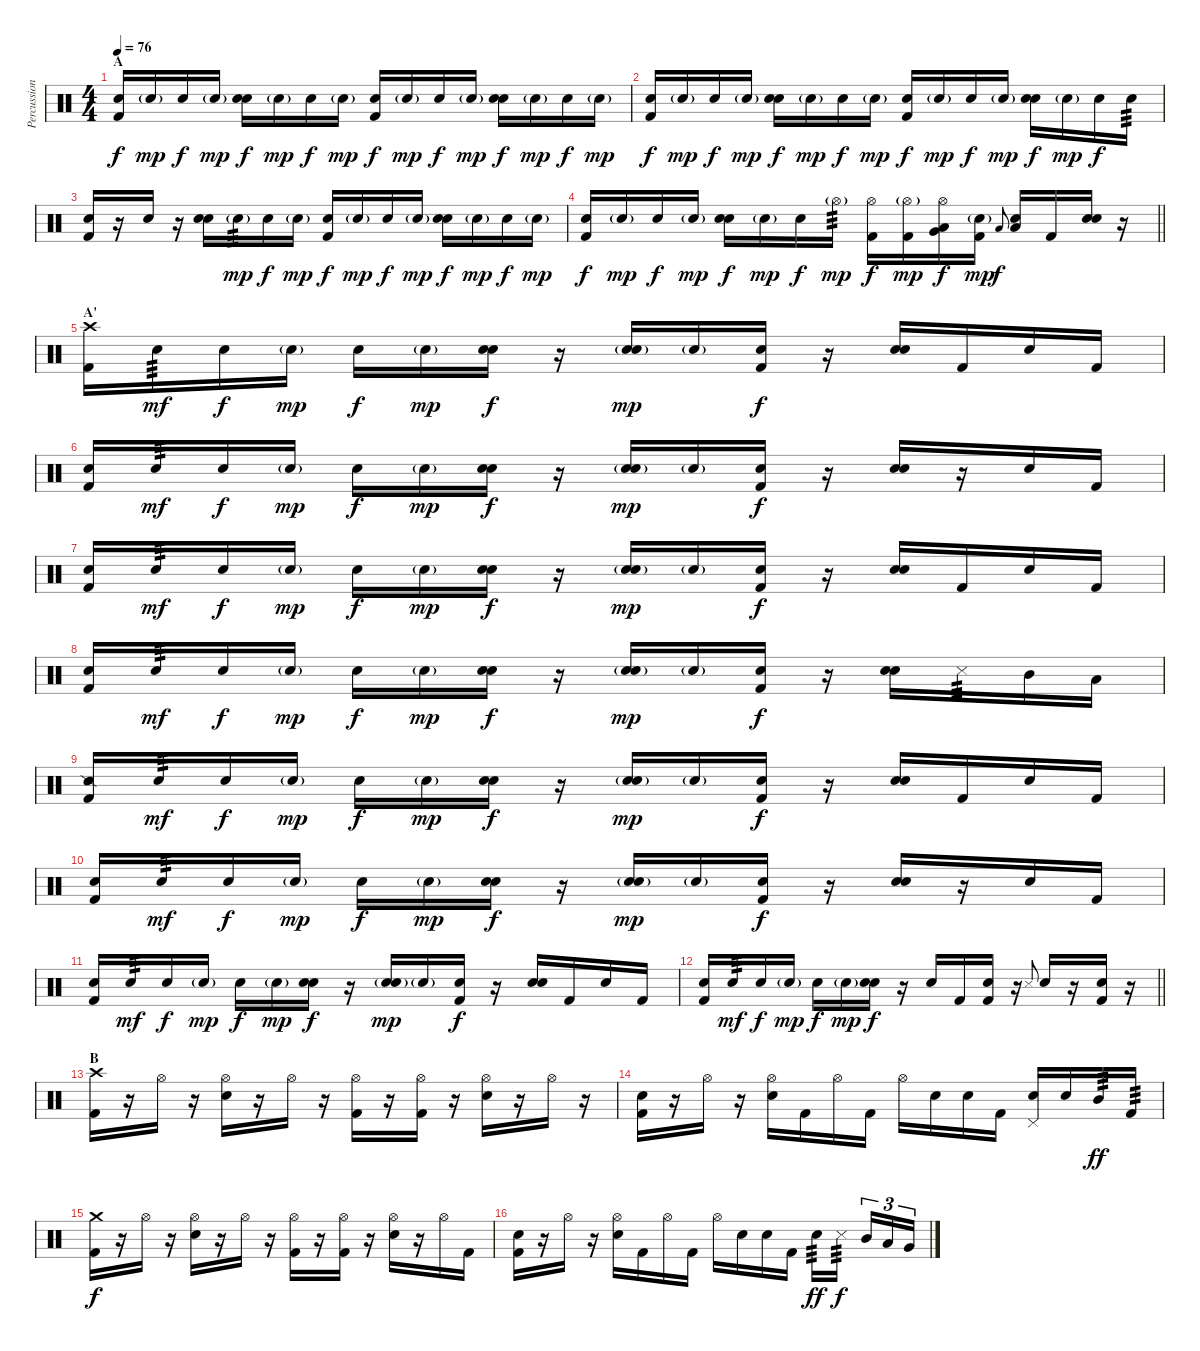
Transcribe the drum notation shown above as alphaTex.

\track ("Percussion" "Percussion") {instrument percussion}
\staff {score}
\articulation defaults
\ts (4 4)
\section ("" "A")
\tempo 76
\clef neutral
\ks c
("Snare (hit)" "Kick (hit) 2").16{dy f} "Snare (hit)"{g}.16{dy mp} "Snare (hit)".16{dy f} "Snare (hit)"{g}.16{dy mp} ("Snare (hit)" "Snare (hit) 2").16{dy f} "Snare (hit)"{g}.16{dy mp} "Snare (hit)".16{dy f} "Snare (hit)"{g}.16{dy mp} ("Snare (hit)" "Kick (hit) 2").16{dy f} "Snare (hit)"{g}.16{dy mp} "Snare (hit)".16{dy f} "Snare (hit)"{g}.16{dy mp} ("Snare (hit)" "Snare (hit) 2").16{dy f} "Snare (hit)"{g}.16{dy mp} "Snare (hit)".16{dy f} "Snare (hit)"{g}.16{dy mp} |
("Snare (hit)" "Kick (hit) 2").16{dy f} "Snare (hit)"{g}.16{dy mp} "Snare (hit)".16{dy f} "Snare (hit)"{g}.16{dy mp} ("Snare (hit)" "Snare (hit) 2").16{dy f} "Snare (hit)"{g}.16{dy mp} "Snare (hit)".16{dy f} "Snare (hit)"{g}.16{dy mp} ("Snare (hit)" "Kick (hit) 2").16{dy f} "Snare (hit)"{g}.16{dy mp} "Snare (hit)".16{dy f} "Snare (hit)"{g}.16{dy mp} ("Snare (hit)" "Snare (hit) 2").16{dy f} "Snare (hit)"{g}.16{dy mp} "Snare (hit)".16{dy f} "Snare (hit)".16{tp 3} |
("Snare (hit)" "Kick (hit) 2").16 r.16 "Snare (hit)".16 r.16 ("Snare (hit)" "Snare (hit) 2").16 "Snare (hit)"{g}.16{tp 3 dy mp} "Snare (hit)".16{dy f} "Snare (hit)"{g}.16{dy mp} ("Snare (hit)" "Kick (hit) 2").16{dy f} "Snare (hit)"{g}.16{dy mp} "Snare (hit)".16{dy f} "Snare (hit)"{g}.16{dy mp} ("Snare (hit)" "Snare (hit) 2").16{dy f} "Snare (hit)"{g}.16{dy mp} "Snare (hit)".16{dy f} "Snare (hit)"{g}.16{dy mp} |
\barLineRight lightlight
("Snare (hit)" "Kick (hit) 2").16{dy f} "Snare (hit)"{g}.16{dy mp} "Snare (hit)".16{dy f} "Snare (hit)"{g}.16{dy mp} ("Snare (hit)" "Snare (hit) 2").16{dy f} "Snare (hit)"{g}.16{dy mp} "Snare (hit)".16{dy f} "Hi-Hat (open)"{g}.16{tp 3 dy mp} ("Hi-Hat (open)" "Kick (hit) 2").16{dy f} ("Hi-Hat (open)"{g} "Kick (hit) 2").16{dy mp} ("Hi-Hat (open)" "Low Tom (hit)" "Very Low Tom (hit)").16{dy f} ("Snare (hit)"{g} "Kick (hit) 2").16{dy mp} "Low Floor Tom (hit)".8{gr onbeat dy f} ("Snare (hit)" "Low Floor Tom (hit)").16 "Kick (hit) 2".16 ("Snare (hit)" "Snare (hit) 2").16 r.16 |
\section ("" "A'")
("Crash high (hit)" "Kick (hit) 2").16 "Snare (hit) 2".16{tp 3 dy mf} "Snare (hit)".16{dy f} "Snare (hit) 2"{g}.16{dy mp} "Snare (hit)".16{dy f} "Snare (hit) 2"{g}.16{dy mp} ("Snare (hit)" "Snare (hit) 2").16{dy f} r.16 ("Snare (hit)" "Snare (hit) 2"{g}).16{dy mp} "Snare (hit) 2"{g}.16 ("Snare (hit)" "Kick (hit) 2").16{dy f} r.16 ("Snare (hit)" "Snare (hit) 2").16 "Kick (hit) 2".16 "Snare (hit)".16 "Kick (hit) 2".16 |
("Snare (hit)" "Kick (hit) 2").16 "Snare (hit) 2".16{tp 3 dy mf} "Snare (hit)".16{dy f} "Snare (hit) 2"{g}.16{dy mp} "Snare (hit)".16{dy f} "Snare (hit) 2"{g}.16{dy mp} ("Snare (hit)" "Snare (hit) 2").16{dy f} r.16 ("Snare (hit)" "Snare (hit) 2"{g}).16{dy mp} "Snare (hit) 2"{g}.16 ("Snare (hit)" "Kick (hit) 2").16{dy f} r.16 ("Snare (hit)" "Snare (hit) 2").16 r.16 "Snare (hit)".16 "Kick (hit) 2".16 |
("Snare (hit)" "Kick (hit) 2").16 "Snare (hit) 2".16{tp 3 dy mf} "Snare (hit)".16{dy f} "Snare (hit) 2"{g}.16{dy mp} "Snare (hit)".16{dy f} "Snare (hit) 2"{g}.16{dy mp} ("Snare (hit)" "Snare (hit) 2").16{dy f} r.16 ("Snare (hit)" "Snare (hit) 2"{g}).16{dy mp} "Snare (hit) 2"{g}.16 ("Snare (hit)" "Kick (hit) 2").16{dy f} r.16 ("Snare (hit)" "Snare (hit) 2").16 "Kick (hit) 2".16 "Snare (hit)".16 "Kick (hit) 2".16 |
("Snare (hit)" "Kick (hit) 2").16 "Snare (hit) 2".16{tp 3 dy mf} "Snare (hit)".16{dy f} "Snare (hit) 2"{g}.16{dy mp} "Snare (hit)".16{dy f} "Snare (hit) 2"{g}.16{dy mp} ("Snare (hit)" "Snare (hit) 2").16{dy f} r.16 ("Snare (hit)" "Snare (hit) 2"{g}).16{dy mp} "Snare (hit) 2"{g}.16 ("Snare (hit)" "Kick (hit) 2").16{dy f} r.16 ("Snare (hit)" "Snare (hit) 2").16 "Metronome (hit)".16{tp 3} "Mid Tom (hit)".16 "Low Tom (hit)".16 |
("Snare (side stick) 2" "Kick (hit) 2").16 "Snare (hit) 2".16{tp 3 dy mf} "Snare (hit)".16{dy f} "Snare (hit) 2"{g}.16{dy mp} "Snare (hit)".16{dy f} "Snare (hit) 2"{g}.16{dy mp} ("Snare (hit)" "Snare (hit) 2").16{dy f} r.16 ("Snare (hit)" "Snare (hit) 2"{g}).16{dy mp} "Snare (hit) 2"{g}.16 ("Snare (hit)" "Kick (hit) 2").16{dy f} r.16 ("Snare (hit)" "Snare (hit) 2").16 "Kick (hit) 2".16 "Snare (hit)".16 "Kick (hit) 2".16 |
("Snare (hit)" "Kick (hit) 2").16 "Snare (hit) 2".16{tp 3 dy mf} "Snare (hit)".16{dy f} "Snare (hit) 2"{g}.16{dy mp} "Snare (hit)".16{dy f} "Snare (hit) 2"{g}.16{dy mp} ("Snare (hit)" "Snare (hit) 2").16{dy f} r.16 ("Snare (hit)" "Snare (hit) 2"{g}).16{dy mp} "Snare (hit) 2"{g}.16 ("Snare (hit)" "Kick (hit) 2").16{dy f} r.16 ("Snare (hit)" "Snare (hit) 2").16 r.16 "Snare (hit)".16 "Kick (hit) 2".16 |
("Snare (hit)" "Kick (hit) 2").16 "Snare (hit) 2".16{tp 3 dy mf} "Snare (hit)".16{dy f} "Snare (hit) 2"{g}.16{dy mp} "Snare (hit)".16{dy f} "Snare (hit) 2"{g}.16{dy mp} ("Snare (hit)" "Snare (hit) 2").16{dy f} r.16 ("Snare (hit)" "Snare (hit) 2"{g}).16{dy mp} "Snare (hit) 2"{g}.16 ("Snare (hit)" "Kick (hit) 2").16{dy f} r.16 ("Snare (hit)" "Snare (hit) 2").16 "Kick (hit) 2".16 "Snare (hit)".16 "Kick (hit) 2".16 |
\barLineRight lightlight
("Snare (hit)" "Kick (hit) 2").16 "Snare (hit) 2".16{tp 3 dy mf} "Snare (hit)".16{dy f} "Snare (hit) 2"{g}.16{dy mp} "Snare (hit)".16{dy f} "Snare (hit) 2"{g}.16{dy mp} ("Snare (hit)" "Snare (hit) 2").16{dy f} r.16 "Snare (hit)".16 "Kick (hit) 2".16 ("Snare (hit)" "Kick (hit) 2").16 r.16 "Metronome (hit)".8{gr onbeat} "Snare (hit) 2".16 r.16 ("Snare (hit)" "Kick (hit) 2").16 r.16 |
\section ("" "B")
("Crash high (hit)" "Kick (hit) 2").16 r.16 "Hi-Hat (open)".16 r.16 ("Hi-Hat (open)" "Snare (hit) 2").16 r.16 "Hi-Hat (open)".16 r.16 ("Hi-Hat (open)" "Kick (hit) 2").16 r.16 ("Hi-Hat (open)" "Kick (hit) 2").16 r.16 ("Hi-Hat (open)" "Snare (hit) 2").16 r.16 "Hi-Hat (open)".16 r.16 |
("Snare (hit)" "Kick (hit) 2").16 r.16 "Hi-Hat (open)".16 r.16 ("Hi-Hat (open)" "Snare (hit) 2").16 "Kick (hit) 2".16 "Hi-Hat (open)".16 "Kick (hit) 2".16 "Hi-Hat (open)".16 "Snare (hit) 2".16 "Snare (hit)".16 "Kick (hit) 2".16 ("Pedal Hi-Hat (hit)" "Snare (hit) 2").16 "Snare (hit)".16 "Mid Tom (hit)".16{tp 3 dy ff} "Kick (hit) 2".16{tp 3} |
("Crash medium (hit)" "Kick (hit) 2").16{dy f} r.16 "Hi-Hat (open)".16 r.16 ("Hi-Hat (open)" "Snare (hit) 2").16 r.16 "Hi-Hat (open)".16 r.16 ("Hi-Hat (open)" "Kick (hit) 2").16 r.16 ("Hi-Hat (open)" "Kick (hit) 2").16 r.16 ("Hi-Hat (open)" "Snare (hit) 2").16 r.16 "Hi-Hat (open)".16 "Kick (hit) 2".16 |
("Snare (hit)" "Kick (hit) 2").16 r.16 "Hi-Hat (open)".16 r.16 ("Hi-Hat (open)" "Snare (hit) 2").16 "Kick (hit) 2".16 "Hi-Hat (open)".16 "Kick (hit) 2".16 "Hi-Hat (open)".16 "Snare (hit) 2".16 "Snare (hit)".16 "Kick (hit) 2".16 "Snare (hit) 2".16{tp 3 dy ff} "Metronome (hit)".16{tp 3 dy f beam splitsecondary} "Mid Tom (hit)".16{tu (3 2)} "Low Tom (hit)".16{tu (3 2)} "Very Low Tom (hit)".16{tu (3 2)}
